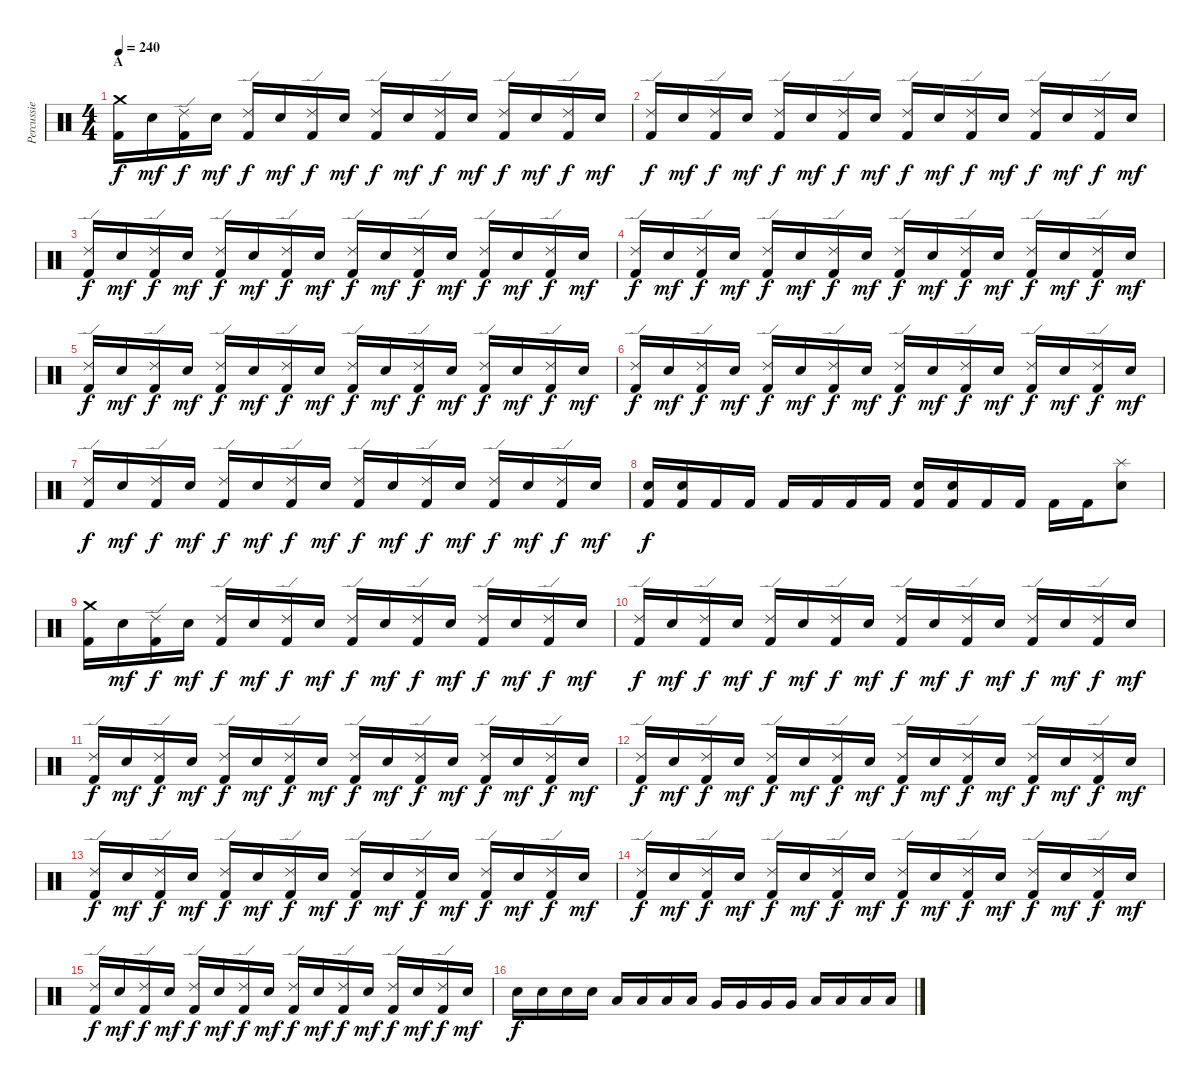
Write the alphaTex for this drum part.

\track ("Percussie" "Percussie") {instrument percussion}
\staff {score}
\articulation defaults
\ts (4 4)
\section ("" "A")
\tempo 240
\tempo 170
\tempo 240
\clef neutral
\ks c
("Crash medium (hit)" "Kick (hit) 2").16{dy f volume 13} "Electric Snare (hit)".16{dy mf} ("Ride (edge) 2" "Kick (hit) 2").16{dy f} "Electric Snare (hit)".16{dy mf} ("Ride (edge) 2" "Kick (hit) 2").16{dy f} "Electric Snare (hit)".16{dy mf} ("Ride (edge) 2" "Kick (hit) 2").16{dy f} "Electric Snare (hit)".16{dy mf} ("Ride (edge) 2" "Kick (hit) 2").16{dy f} "Electric Snare (hit)".16{dy mf} ("Ride (edge) 2" "Kick (hit) 2").16{dy f} "Electric Snare (hit)".16{dy mf} ("Ride (edge) 2" "Kick (hit) 2").16{dy f} "Electric Snare (hit)".16{dy mf} ("Ride (edge) 2" "Kick (hit) 2").16{dy f} "Electric Snare (hit)".16{dy mf} |
("Ride (edge) 2" "Kick (hit) 2").16{dy f} "Electric Snare (hit)".16{dy mf} ("Ride (edge) 2" "Kick (hit) 2").16{dy f} "Electric Snare (hit)".16{dy mf} ("Ride (edge) 2" "Kick (hit) 2").16{dy f} "Electric Snare (hit)".16{dy mf} ("Ride (edge) 2" "Kick (hit) 2").16{dy f} "Electric Snare (hit)".16{dy mf} ("Ride (edge) 2" "Kick (hit) 2").16{dy f} "Electric Snare (hit)".16{dy mf} ("Ride (edge) 2" "Kick (hit) 2").16{dy f} "Electric Snare (hit)".16{dy mf} ("Ride (edge) 2" "Kick (hit) 2").16{dy f} "Electric Snare (hit)".16{dy mf} ("Ride (edge) 2" "Kick (hit) 2").16{dy f} "Electric Snare (hit)".16{dy mf} |
("Ride (edge) 2" "Kick (hit) 2").16{dy f} "Electric Snare (hit)".16{dy mf} ("Ride (edge) 2" "Kick (hit) 2").16{dy f} "Electric Snare (hit)".16{dy mf} ("Ride (edge) 2" "Kick (hit) 2").16{dy f} "Electric Snare (hit)".16{dy mf} ("Ride (edge) 2" "Kick (hit) 2").16{dy f} "Electric Snare (hit)".16{dy mf} ("Ride (edge) 2" "Kick (hit) 2").16{dy f} "Electric Snare (hit)".16{dy mf} ("Ride (edge) 2" "Kick (hit) 2").16{dy f} "Electric Snare (hit)".16{dy mf} ("Ride (edge) 2" "Kick (hit) 2").16{dy f} "Electric Snare (hit)".16{dy mf} ("Ride (edge) 2" "Kick (hit) 2").16{dy f} "Electric Snare (hit)".16{dy mf} |
("Ride (edge) 2" "Kick (hit) 2").16{dy f} "Electric Snare (hit)".16{dy mf} ("Ride (edge) 2" "Kick (hit) 2").16{dy f} "Electric Snare (hit)".16{dy mf} ("Ride (edge) 2" "Kick (hit) 2").16{dy f} "Electric Snare (hit)".16{dy mf} ("Ride (edge) 2" "Kick (hit) 2").16{dy f} "Electric Snare (hit)".16{dy mf} ("Ride (edge) 2" "Kick (hit) 2").16{dy f} "Electric Snare (hit)".16{dy mf} ("Ride (edge) 2" "Kick (hit) 2").16{dy f} "Electric Snare (hit)".16{dy mf} ("Ride (edge) 2" "Kick (hit) 2").16{dy f} "Electric Snare (hit)".16{dy mf} ("Ride (edge) 2" "Kick (hit) 2").16{dy f} "Electric Snare (hit)".16{dy mf} |
("Ride (edge) 2" "Kick (hit) 2").16{dy f} "Electric Snare (hit)".16{dy mf} ("Ride (edge) 2" "Kick (hit) 2").16{dy f} "Electric Snare (hit)".16{dy mf} ("Ride (edge) 2" "Kick (hit) 2").16{dy f} "Electric Snare (hit)".16{dy mf} ("Ride (edge) 2" "Kick (hit) 2").16{dy f} "Electric Snare (hit)".16{dy mf} ("Ride (edge) 2" "Kick (hit) 2").16{dy f} "Electric Snare (hit)".16{dy mf} ("Ride (edge) 2" "Kick (hit) 2").16{dy f} "Electric Snare (hit)".16{dy mf} ("Ride (edge) 2" "Kick (hit) 2").16{dy f} "Electric Snare (hit)".16{dy mf} ("Ride (edge) 2" "Kick (hit) 2").16{dy f} "Electric Snare (hit)".16{dy mf} |
("Ride (edge) 2" "Kick (hit) 2").16{dy f} "Electric Snare (hit)".16{dy mf} ("Ride (edge) 2" "Kick (hit) 2").16{dy f} "Electric Snare (hit)".16{dy mf} ("Ride (edge) 2" "Kick (hit) 2").16{dy f} "Electric Snare (hit)".16{dy mf} ("Ride (edge) 2" "Kick (hit) 2").16{dy f} "Electric Snare (hit)".16{dy mf} ("Ride (edge) 2" "Kick (hit) 2").16{dy f} "Electric Snare (hit)".16{dy mf} ("Ride (edge) 2" "Kick (hit) 2").16{dy f} "Electric Snare (hit)".16{dy mf} ("Ride (edge) 2" "Kick (hit) 2").16{dy f} "Electric Snare (hit)".16{dy mf} ("Ride (edge) 2" "Kick (hit) 2").16{dy f} "Electric Snare (hit)".16{dy mf} |
("Ride (edge) 2" "Kick (hit) 2").16{dy f} "Electric Snare (hit)".16{dy mf} ("Ride (edge) 2" "Kick (hit) 2").16{dy f} "Electric Snare (hit)".16{dy mf} ("Ride (edge) 2" "Kick (hit) 2").16{dy f} "Electric Snare (hit)".16{dy mf} ("Ride (edge) 2" "Kick (hit) 2").16{dy f} "Electric Snare (hit)".16{dy mf} ("Ride (edge) 2" "Kick (hit) 2").16{dy f} "Electric Snare (hit)".16{dy mf} ("Ride (edge) 2" "Kick (hit) 2").16{dy f} "Electric Snare (hit)".16{dy mf} ("Ride (edge) 2" "Kick (hit) 2").16{dy f} "Electric Snare (hit)".16{dy mf} ("Ride (edge) 2" "Kick (hit) 2").16{dy f} "Electric Snare (hit)".16{dy mf} |
("Electric Snare (hit)" "Kick (hit) 2").16{dy f} ("Electric Snare (hit)" "Kick (hit) 2").16 "Kick (hit) 2".16 "Kick (hit) 2".16 "Kick (hit) 2".16 "Kick (hit) 2".16 "Kick (hit) 2".16 "Kick (hit) 2".16 ("Electric Snare (hit)" "Kick (hit) 2").16 ("Electric Snare (hit)" "Kick (hit) 2").16 "Kick (hit) 2".16 "Kick (hit) 2".16 "Kick (hit) 2".16 "Kick (hit) 2".16 ("Splash (hit)" "Electric Snare (hit)").8 |
("Crash medium (hit)" "Kick (hit) 2").16 "Electric Snare (hit)".16{dy mf} ("Ride (edge) 2" "Kick (hit) 2").16{dy f} "Electric Snare (hit)".16{dy mf} ("Ride (edge) 2" "Kick (hit) 2").16{dy f} "Electric Snare (hit)".16{dy mf} ("Ride (edge) 2" "Kick (hit) 2").16{dy f} "Electric Snare (hit)".16{dy mf} ("Ride (edge) 2" "Kick (hit) 2").16{dy f} "Electric Snare (hit)".16{dy mf} ("Ride (edge) 2" "Kick (hit) 2").16{dy f} "Electric Snare (hit)".16{dy mf} ("Ride (edge) 2" "Kick (hit) 2").16{dy f} "Electric Snare (hit)".16{dy mf} ("Ride (edge) 2" "Kick (hit) 2").16{dy f} "Electric Snare (hit)".16{dy mf} |
("Ride (edge) 2" "Kick (hit) 2").16{dy f} "Electric Snare (hit)".16{dy mf} ("Ride (edge) 2" "Kick (hit) 2").16{dy f} "Electric Snare (hit)".16{dy mf} ("Ride (edge) 2" "Kick (hit) 2").16{dy f} "Electric Snare (hit)".16{dy mf} ("Ride (edge) 2" "Kick (hit) 2").16{dy f} "Electric Snare (hit)".16{dy mf} ("Ride (edge) 2" "Kick (hit) 2").16{dy f} "Electric Snare (hit)".16{dy mf} ("Ride (edge) 2" "Kick (hit) 2").16{dy f} "Electric Snare (hit)".16{dy mf} ("Ride (edge) 2" "Kick (hit) 2").16{dy f} "Electric Snare (hit)".16{dy mf} ("Ride (edge) 2" "Kick (hit) 2").16{dy f} "Electric Snare (hit)".16{dy mf} |
("Ride (edge) 2" "Kick (hit) 2").16{dy f} "Electric Snare (hit)".16{dy mf} ("Ride (edge) 2" "Kick (hit) 2").16{dy f} "Electric Snare (hit)".16{dy mf} ("Ride (edge) 2" "Kick (hit) 2").16{dy f} "Electric Snare (hit)".16{dy mf} ("Ride (edge) 2" "Kick (hit) 2").16{dy f} "Electric Snare (hit)".16{dy mf} ("Ride (edge) 2" "Kick (hit) 2").16{dy f} "Electric Snare (hit)".16{dy mf} ("Ride (edge) 2" "Kick (hit) 2").16{dy f} "Electric Snare (hit)".16{dy mf} ("Ride (edge) 2" "Kick (hit) 2").16{dy f} "Electric Snare (hit)".16{dy mf} ("Ride (edge) 2" "Kick (hit) 2").16{dy f} "Electric Snare (hit)".16{dy mf} |
("Ride (edge) 2" "Kick (hit) 2").16{dy f} "Electric Snare (hit)".16{dy mf} ("Ride (edge) 2" "Kick (hit) 2").16{dy f} "Electric Snare (hit)".16{dy mf} ("Ride (edge) 2" "Kick (hit) 2").16{dy f} "Electric Snare (hit)".16{dy mf} ("Ride (edge) 2" "Kick (hit) 2").16{dy f} "Electric Snare (hit)".16{dy mf} ("Ride (edge) 2" "Kick (hit) 2").16{dy f} "Electric Snare (hit)".16{dy mf} ("Ride (edge) 2" "Kick (hit) 2").16{dy f} "Electric Snare (hit)".16{dy mf} ("Ride (edge) 2" "Kick (hit) 2").16{dy f} "Electric Snare (hit)".16{dy mf} ("Ride (edge) 2" "Kick (hit) 2").16{dy f} "Electric Snare (hit)".16{dy mf} |
("Ride (edge) 2" "Kick (hit) 2").16{dy f} "Electric Snare (hit)".16{dy mf} ("Ride (edge) 2" "Kick (hit) 2").16{dy f} "Electric Snare (hit)".16{dy mf} ("Ride (edge) 2" "Kick (hit) 2").16{dy f} "Electric Snare (hit)".16{dy mf} ("Ride (edge) 2" "Kick (hit) 2").16{dy f} "Electric Snare (hit)".16{dy mf} ("Ride (edge) 2" "Kick (hit) 2").16{dy f} "Electric Snare (hit)".16{dy mf} ("Ride (edge) 2" "Kick (hit) 2").16{dy f} "Electric Snare (hit)".16{dy mf} ("Ride (edge) 2" "Kick (hit) 2").16{dy f} "Electric Snare (hit)".16{dy mf} ("Ride (edge) 2" "Kick (hit) 2").16{dy f} "Electric Snare (hit)".16{dy mf} |
("Ride (edge) 2" "Kick (hit) 2").16{dy f} "Electric Snare (hit)".16{dy mf} ("Ride (edge) 2" "Kick (hit) 2").16{dy f} "Electric Snare (hit)".16{dy mf} ("Ride (edge) 2" "Kick (hit) 2").16{dy f} "Electric Snare (hit)".16{dy mf} ("Ride (edge) 2" "Kick (hit) 2").16{dy f} "Electric Snare (hit)".16{dy mf} ("Ride (edge) 2" "Kick (hit) 2").16{dy f} "Electric Snare (hit)".16{dy mf} ("Ride (edge) 2" "Kick (hit) 2").16{dy f} "Electric Snare (hit)".16{dy mf} ("Ride (edge) 2" "Kick (hit) 2").16{dy f} "Electric Snare (hit)".16{dy mf} ("Ride (edge) 2" "Kick (hit) 2").16{dy f} "Electric Snare (hit)".16{dy mf} |
("Ride (edge) 2" "Kick (hit) 2").16{dy f} "Electric Snare (hit)".16{dy mf} ("Ride (edge) 2" "Kick (hit) 2").16{dy f} "Electric Snare (hit)".16{dy mf} ("Ride (edge) 2" "Kick (hit) 2").16{dy f} "Electric Snare (hit)".16{dy mf} ("Ride (edge) 2" "Kick (hit) 2").16{dy f} "Electric Snare (hit)".16{dy mf} ("Ride (edge) 2" "Kick (hit) 2").16{dy f} "Electric Snare (hit)".16{dy mf} ("Ride (edge) 2" "Kick (hit) 2").16{dy f} "Electric Snare (hit)".16{dy mf} ("Ride (edge) 2" "Kick (hit) 2").16{dy f} "Electric Snare (hit)".16{dy mf} ("Ride (edge) 2" "Kick (hit) 2").16{dy f} "Electric Snare (hit)".16{dy mf} |
"Electric Snare (hit)".16{dy f} "Electric Snare (hit)".16 "Electric Snare (hit)".16 "Electric Snare (hit)".16 "Low Tom (hit)".16 "Low Tom (hit)".16 "Low Tom (hit)".16 "Low Tom (hit)".16 "Very Low Tom (hit)".16 "Very Low Tom (hit)".16 "Very Low Tom (hit)".16 "Very Low Tom (hit)".16 "Low Floor Tom (hit)".16 "Low Floor Tom (hit)".16 "Low Floor Tom (hit)".16 "Low Floor Tom (hit)".16
